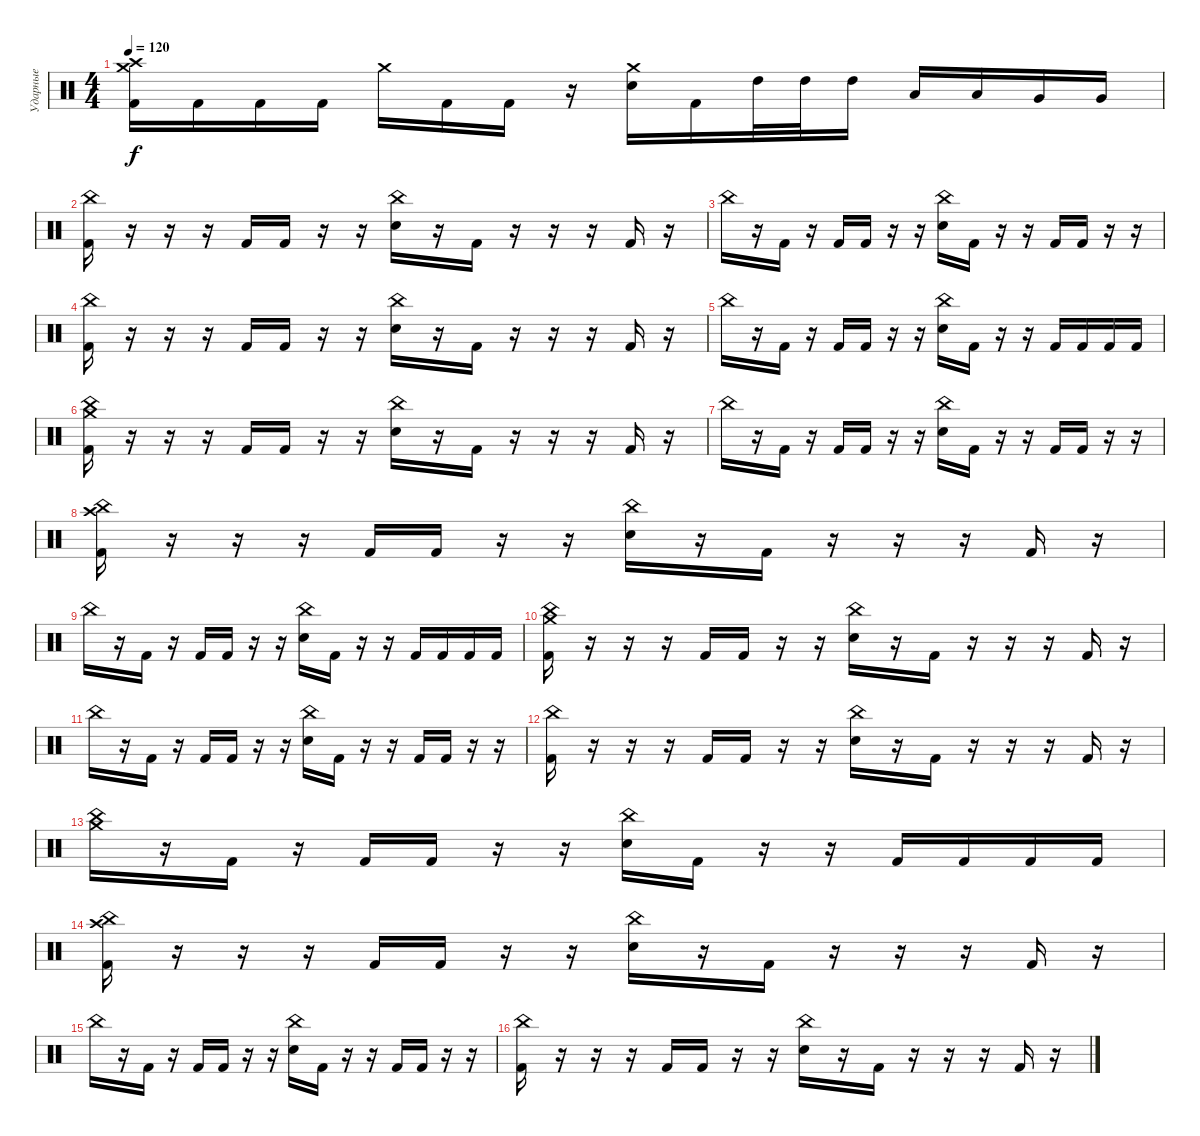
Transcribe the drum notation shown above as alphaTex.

\track ("Ударные" "Ударные") {instrument percussion}
\staff {score}
\articulation defaults
\ts (4 4)
\tempo 120
\clef neutral
\ks c
("Crash medium (hit)" "Crash high (hit)" "Kick (hit) 2").16{dy f} "Kick (hit) 2".16 "Kick (hit) 2".16 "Kick (hit) 2".16 "Crash medium (hit)".16 "Kick (hit) 2".16 "Kick (hit) 2".16 r.16 ("Crash medium (hit)" "Electric Snare (hit)").16 "Kick (hit) 2".16 "High Tom (hit)".32 "High Tom (hit)".32 "High Tom (hit)".16 "Low Tom (hit)".16 "Low Tom (hit)".16 "Very Low Tom (hit)".16 "Very Low Tom (hit)".16 |
("China (hit)" "Kick (hit) 2").16 r.16 r.16 r.16 "Kick (hit) 2".16 "Kick (hit) 2".16 r.16 r.16 ("China (hit)" "Electric Snare (hit)").16 r.16 "Kick (hit) 2".16 r.16 r.16 r.16 "Kick (hit) 2".16 r.16 |
"China (hit)".16 r.16 "Kick (hit) 2".16 r.16 "Kick (hit) 2".16 "Kick (hit) 2".16 r.16 r.16 ("China (hit)" "Electric Snare (hit)").16 "Kick (hit) 2".16 r.16 r.16 "Kick (hit) 2".16 "Kick (hit) 2".16 r.16 r.16 |
("China (hit)" "Kick (hit) 2").16 r.16 r.16 r.16 "Kick (hit) 2".16 "Kick (hit) 2".16 r.16 r.16 ("China (hit)" "Electric Snare (hit)").16 r.16 "Kick (hit) 2".16 r.16 r.16 r.16 "Kick (hit) 2".16 r.16 |
"China (hit)".16 r.16 "Kick (hit) 2".16 r.16 "Kick (hit) 2".16 "Kick (hit) 2".16 r.16 r.16 ("China (hit)" "Electric Snare (hit)").16 "Kick (hit) 2".16 r.16 r.16 "Kick (hit) 2".16 "Kick (hit) 2".16 "Kick (hit) 2".16 "Kick (hit) 2".16 |
("China (hit)" "Crash medium (hit)" "Kick (hit) 2").16 r.16 r.16 r.16 "Kick (hit) 2".16 "Kick (hit) 2".16 r.16 r.16 ("China (hit)" "Electric Snare (hit)").16 r.16 "Kick (hit) 2".16 r.16 r.16 r.16 "Kick (hit) 2".16 r.16 |
"China (hit)".16 r.16 "Kick (hit) 2".16 r.16 "Kick (hit) 2".16 "Kick (hit) 2".16 r.16 r.16 ("China (hit)" "Electric Snare (hit)").16 "Kick (hit) 2".16 r.16 r.16 "Kick (hit) 2".16 "Kick (hit) 2".16 r.16 r.16 |
("China (hit)" "Crash high (hit)" "Kick (hit) 2").16 r.16 r.16 r.16 "Kick (hit) 2".16 "Kick (hit) 2".16 r.16 r.16 ("China (hit)" "Electric Snare (hit)").16 r.16 "Kick (hit) 2".16 r.16 r.16 r.16 "Kick (hit) 2".16 r.16 |
"China (hit)".16 r.16 "Kick (hit) 2".16 r.16 "Kick (hit) 2".16 "Kick (hit) 2".16 r.16 r.16 ("China (hit)" "Electric Snare (hit)").16 "Kick (hit) 2".16 r.16 r.16 "Kick (hit) 2".16 "Kick (hit) 2".16 "Kick (hit) 2".16 "Kick (hit) 2".16 |
("China (hit)" "Crash medium (hit)" "Kick (hit) 2").16 r.16 r.16 r.16 "Kick (hit) 2".16 "Kick (hit) 2".16 r.16 r.16 ("China (hit)" "Electric Snare (hit)").16 r.16 "Kick (hit) 2".16 r.16 r.16 r.16 "Kick (hit) 2".16 r.16 |
"China (hit)".16 r.16 "Kick (hit) 2".16 r.16 "Kick (hit) 2".16 "Kick (hit) 2".16 r.16 r.16 ("China (hit)" "Electric Snare (hit)").16 "Kick (hit) 2".16 r.16 r.16 "Kick (hit) 2".16 "Kick (hit) 2".16 r.16 r.16 |
("China (hit)" "Kick (hit) 2").16 r.16 r.16 r.16 "Kick (hit) 2".16 "Kick (hit) 2".16 r.16 r.16 ("China (hit)" "Electric Snare (hit)").16 r.16 "Kick (hit) 2".16 r.16 r.16 r.16 "Kick (hit) 2".16 r.16 |
("China (hit)" "Crash medium (hit)").16 r.16 "Kick (hit) 2".16 r.16 "Kick (hit) 2".16 "Kick (hit) 2".16 r.16 r.16 ("China (hit)" "Electric Snare (hit)").16 "Kick (hit) 2".16 r.16 r.16 "Kick (hit) 2".16 "Kick (hit) 2".16 "Kick (hit) 2".16 "Kick (hit) 2".16 |
("China (hit)" "Crash high (hit)" "Kick (hit) 2").16 r.16 r.16 r.16 "Kick (hit) 2".16 "Kick (hit) 2".16 r.16 r.16 ("China (hit)" "Electric Snare (hit)").16 r.16 "Kick (hit) 2".16 r.16 r.16 r.16 "Kick (hit) 2".16 r.16 |
"China (hit)".16 r.16 "Kick (hit) 2".16 r.16 "Kick (hit) 2".16 "Kick (hit) 2".16 r.16 r.16 ("China (hit)" "Electric Snare (hit)").16 "Kick (hit) 2".16 r.16 r.16 "Kick (hit) 2".16 "Kick (hit) 2".16 r.16 r.16 |
("China (hit)" "Kick (hit) 2").16 r.16 r.16 r.16 "Kick (hit) 2".16 "Kick (hit) 2".16 r.16 r.16 ("China (hit)" "Electric Snare (hit)").16 r.16 "Kick (hit) 2".16 r.16 r.16 r.16 "Kick (hit) 2".16 r.16
